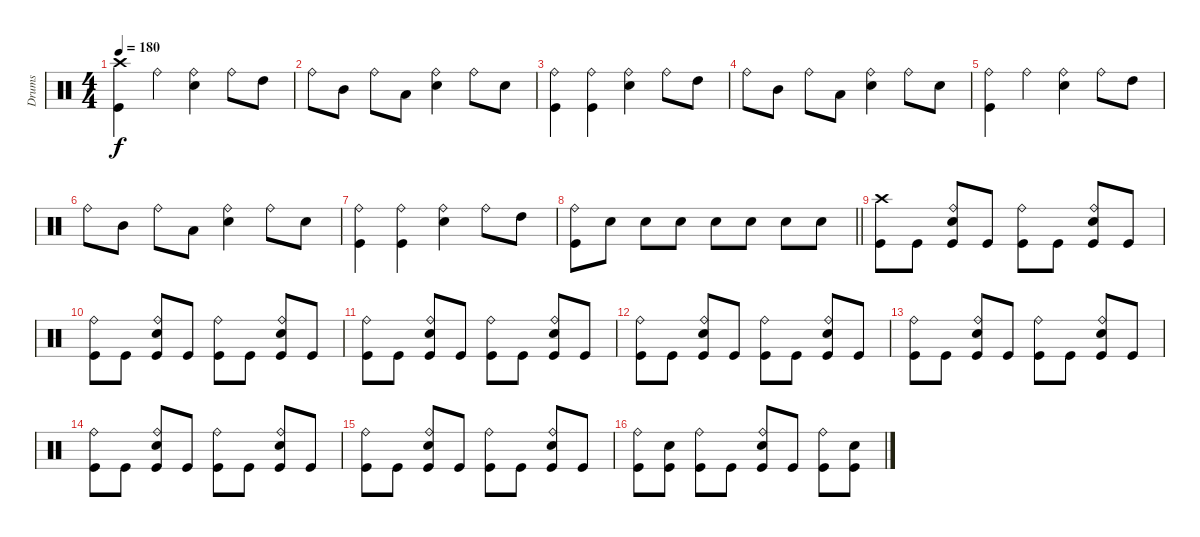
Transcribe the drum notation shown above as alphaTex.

\track ("Drums" "Drums") {instrument percussion}
\staff {score}
\articulation defaults
\ts (4 4)
\tempo 180
\clef neutral
\ks c
("Crash high (hit)" "Kick (hit)").4{dy f} "Ride (bell)".4 ("Ride (bell)" "Snare (hit) 2").4 "Ride (bell)".8 "High Tom (hit)".8 |
"Ride (bell)".8 "Mid Tom (hit)".8 "Ride (bell)".8 "Low Tom (hit)".8 ("Ride (bell)" "Snare (hit) 2").4 "Ride (bell)".8 "Snare (hit) 2".8 |
("Ride (bell)" "Kick (hit)").4 ("Ride (bell)" "Kick (hit)").4 ("Ride (bell)" "Snare (hit) 2").4 "Ride (bell)".8 "High Tom (hit)".8 |
"Ride (bell)".8 "Mid Tom (hit)".8 "Ride (bell)".8 "Low Tom (hit)".8 ("Ride (bell)" "Snare (hit) 2").4 "Ride (bell)".8 "Snare (hit) 2".8 |
("Ride (bell)" "Kick (hit)").4 "Ride (bell)".4 ("Ride (bell)" "Snare (hit) 2").4 "Ride (bell)".8 "High Tom (hit)".8 |
"Ride (bell)".8 "Mid Tom (hit)".8 "Ride (bell)".8 "Low Tom (hit)".8 ("Ride (bell)" "Snare (hit) 2").4 "Ride (bell)".8 "Snare (hit) 2".8 |
("Ride (bell)" "Kick (hit)").4 ("Ride (bell)" "Kick (hit)").4 ("Ride (bell)" "Snare (hit) 2").4 "Ride (bell)".8 "High Tom (hit)".8 |
\barLineRight lightlight
("Ride (bell)" "Kick (hit)").8 "Snare (hit) 2".8 "Snare (hit) 2".8 "Snare (hit) 2".8 "Snare (hit) 2".8 "Snare (hit) 2".8 "Snare (hit) 2".8 "Snare (hit) 2".8 |
("Crash high (hit)" "Kick (hit)").8 "Kick (hit)".8 ("Ride (bell)" "Snare (hit) 2" "Kick (hit)").8 "Kick (hit)".8 ("Ride (bell)" "Kick (hit)").8 "Kick (hit)".8 ("Ride (bell)" "Snare (hit) 2" "Kick (hit)").8 "Kick (hit)".8 |
("Ride (bell)" "Kick (hit)").8 "Kick (hit)".8 ("Ride (bell)" "Snare (hit) 2" "Kick (hit)").8 "Kick (hit)".8 ("Ride (bell)" "Kick (hit)").8 "Kick (hit)".8 ("Ride (bell)" "Snare (hit) 2" "Kick (hit)").8 "Kick (hit)".8 |
("Ride (bell)" "Kick (hit)").8 "Kick (hit)".8 ("Ride (bell)" "Snare (hit) 2" "Kick (hit)").8 "Kick (hit)".8 ("Ride (bell)" "Kick (hit)").8 "Kick (hit)".8 ("Ride (bell)" "Snare (hit) 2" "Kick (hit)").8 "Kick (hit)".8 |
("Ride (bell)" "Kick (hit)").8 "Kick (hit)".8 ("Ride (bell)" "Snare (hit) 2" "Kick (hit)").8 "Kick (hit)".8 ("Ride (bell)" "Kick (hit)").8 "Kick (hit)".8 ("Ride (bell)" "Snare (hit) 2" "Kick (hit)").8 "Kick (hit)".8 |
("Ride (bell)" "Kick (hit)").8 "Kick (hit)".8 ("Ride (bell)" "Snare (hit) 2" "Kick (hit)").8 "Kick (hit)".8 ("Ride (bell)" "Kick (hit)").8 "Kick (hit)".8 ("Ride (bell)" "Snare (hit) 2" "Kick (hit)").8 "Kick (hit)".8 |
("Ride (bell)" "Kick (hit)").8 "Kick (hit)".8 ("Ride (bell)" "Snare (hit) 2" "Kick (hit)").8 "Kick (hit)".8 ("Ride (bell)" "Kick (hit)").8 "Kick (hit)".8 ("Ride (bell)" "Snare (hit) 2" "Kick (hit)").8 "Kick (hit)".8 |
("Ride (bell)" "Kick (hit)").8 "Kick (hit)".8 ("Ride (bell)" "Snare (hit) 2" "Kick (hit)").8 "Kick (hit)".8 ("Ride (bell)" "Kick (hit)").8 "Kick (hit)".8 ("Ride (bell)" "Snare (hit) 2" "Kick (hit)").8 "Kick (hit)".8 |
("Ride (bell)" "Kick (hit)").8 ("Snare (hit) 2" "Kick (hit)").8 ("Ride (bell)" "Kick (hit)").8 "Kick (hit)".8 ("Ride (bell)" "Snare (hit) 2" "Kick (hit)").8 "Kick (hit)".8 ("Ride (bell)" "Kick (hit)").8 ("Snare (hit) 2" "Kick (hit)").8
